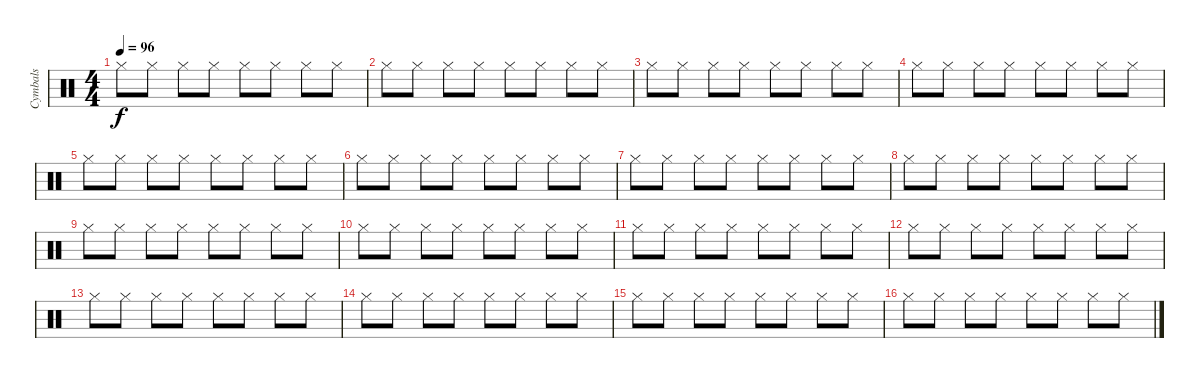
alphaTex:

\track ("Cymbals" "Cymbals") {instrument percussion}
\staff {score}
\articulation defaults
\ts (4 4)
\tempo 96
\clef neutral
\ks c "Hi-Hat (closed)".8{dy f} "Hi-Hat (closed)".8 "Hi-Hat (closed)".8 "Hi-Hat (closed)".8 "Hi-Hat (closed)".8 "Hi-Hat (closed)".8 "Hi-Hat (closed)".8 "Hi-Hat (closed)".8
|
"Hi-Hat (closed)".8 "Hi-Hat (closed)".8 "Hi-Hat (closed)".8 "Hi-Hat (closed)".8 "Hi-Hat (closed)".8 "Hi-Hat (closed)".8 "Hi-Hat (closed)".8 "Hi-Hat (closed)".8 |
"Hi-Hat (closed)".8 "Hi-Hat (closed)".8 "Hi-Hat (closed)".8 "Hi-Hat (closed)".8 "Hi-Hat (closed)".8 "Hi-Hat (closed)".8 "Hi-Hat (closed)".8 "Hi-Hat (closed)".8 |
"Hi-Hat (closed)".8 "Hi-Hat (closed)".8 "Hi-Hat (closed)".8 "Hi-Hat (closed)".8 "Hi-Hat (closed)".8 "Hi-Hat (closed)".8 "Hi-Hat (closed)".8 "Hi-Hat (closed)".8 |
"Hi-Hat (closed)".8 "Hi-Hat (closed)".8 "Hi-Hat (closed)".8 "Hi-Hat (closed)".8 "Hi-Hat (closed)".8 "Hi-Hat (closed)".8 "Hi-Hat (closed)".8 "Hi-Hat (closed)".8 |
"Hi-Hat (closed)".8 "Hi-Hat (closed)".8 "Hi-Hat (closed)".8 "Hi-Hat (closed)".8 "Hi-Hat (closed)".8 "Hi-Hat (closed)".8 "Hi-Hat (closed)".8 "Hi-Hat (closed)".8 |
"Hi-Hat (closed)".8 "Hi-Hat (closed)".8 "Hi-Hat (closed)".8 "Hi-Hat (closed)".8 "Hi-Hat (closed)".8 "Hi-Hat (closed)".8 "Hi-Hat (closed)".8 "Hi-Hat (closed)".8 |
"Hi-Hat (closed)".8 "Hi-Hat (closed)".8 "Hi-Hat (closed)".8 "Hi-Hat (closed)".8 "Hi-Hat (closed)".8 "Hi-Hat (closed)".8 "Hi-Hat (closed)".8 "Hi-Hat (closed)".8 |
"Hi-Hat (closed)".8 "Hi-Hat (closed)".8 "Hi-Hat (closed)".8 "Hi-Hat (closed)".8 "Hi-Hat (closed)".8 "Hi-Hat (closed)".8 "Hi-Hat (closed)".8 "Hi-Hat (closed)".8 |
"Hi-Hat (closed)".8 "Hi-Hat (closed)".8 "Hi-Hat (closed)".8 "Hi-Hat (closed)".8 "Hi-Hat (closed)".8 "Hi-Hat (closed)".8 "Hi-Hat (closed)".8 "Hi-Hat (closed)".8 |
"Hi-Hat (closed)".8 "Hi-Hat (closed)".8 "Hi-Hat (closed)".8 "Hi-Hat (closed)".8 "Hi-Hat (closed)".8 "Hi-Hat (closed)".8 "Hi-Hat (closed)".8 "Hi-Hat (closed)".8 |
"Hi-Hat (closed)".8 "Hi-Hat (closed)".8 "Hi-Hat (closed)".8 "Hi-Hat (closed)".8 "Hi-Hat (closed)".8 "Hi-Hat (closed)".8 "Hi-Hat (closed)".8 "Hi-Hat (closed)".8 |
"Hi-Hat (closed)".8 "Hi-Hat (closed)".8 "Hi-Hat (closed)".8 "Hi-Hat (closed)".8 "Hi-Hat (closed)".8 "Hi-Hat (closed)".8 "Hi-Hat (closed)".8 "Hi-Hat (closed)".8 |
"Hi-Hat (closed)".8 "Hi-Hat (closed)".8 "Hi-Hat (closed)".8 "Hi-Hat (closed)".8 "Hi-Hat (closed)".8 "Hi-Hat (closed)".8 "Hi-Hat (closed)".8 "Hi-Hat (closed)".8 |
"Hi-Hat (closed)".8 "Hi-Hat (closed)".8 "Hi-Hat (closed)".8 "Hi-Hat (closed)".8 "Hi-Hat (closed)".8 "Hi-Hat (closed)".8 "Hi-Hat (closed)".8 "Hi-Hat (closed)".8 |
"Hi-Hat (closed)".8 "Hi-Hat (closed)".8 "Hi-Hat (closed)".8 "Hi-Hat (closed)".8 "Hi-Hat (closed)".8 "Hi-Hat (closed)".8 "Hi-Hat (closed)".8 "Hi-Hat (closed)".8
